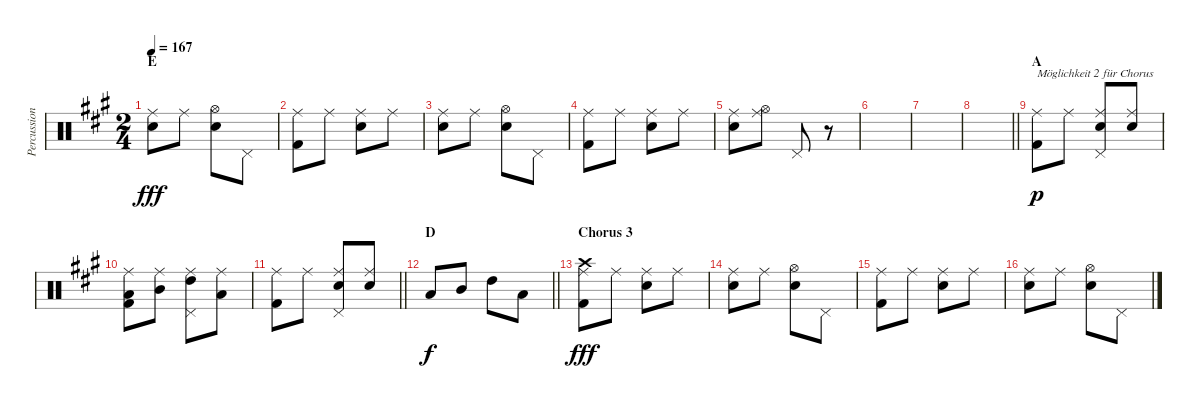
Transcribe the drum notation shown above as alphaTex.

\track ("Percussion" "Percussion") {instrument percussion}
\staff {score}
\articulation defaults
\ts (2 4)
\section ("" "E")
\tempo 167
\clef neutral
\ks a
("Ride (middle)" "Snare (hit) 2").8{dy fff} "Ride (middle)".8 ("Hi-Hat (open)" "Snare (hit) 2").8 "Pedal Hi-Hat (hit)".8 |
("Ride (middle)" "Kick (hit) 2").8 "Ride (middle)".8 ("Ride (middle)" "Snare (hit) 2").8 "Ride (middle)".8 |
("Ride (middle)" "Snare (hit) 2").8 "Ride (middle)".8 ("Hi-Hat (open)" "Snare (hit) 2").8 "Pedal Hi-Hat (hit)".8 |
("Ride (middle)" "Kick (hit) 2").8 "Ride (middle)".8 ("Ride (middle)" "Snare (hit) 2").8 "Ride (middle)".8 |
("Ride (middle)" "Snare (hit) 2").8 ("Ride (middle)" "Hi-Hat (open)").8 "Pedal Hi-Hat (hit)".8 r.8 |
|
|
\barLineRight lightlight
|
\section ("" "A")
("Ride (middle)" "Kick (hit) 2").8{txt "Möglichkeit 2 für Chorus" dy p} "Ride (middle)".8 ("Ride (middle)" "Pedal Hi-Hat (hit)" "Snare (hit) 2").8 ("Ride (middle)" "Snare (hit) 2").8 |
("Ride (middle)" "Low Tom (hit)" "Kick (hit) 2").8 ("Ride (middle)" "Mid Tom (hit)").8 ("Ride (middle)" "High Tom (hit)" "Pedal Hi-Hat (hit)").8 ("Ride (middle)" "Low Tom (hit)").8 |
\barLineRight lightlight
("Ride (middle)" "Kick (hit) 2").8 "Ride (middle)".8 ("Ride (middle)" "Pedal Hi-Hat (hit)" "Snare (hit) 2").8 ("Ride (middle)" "Snare (hit) 2").8 |
\section ("" "D")
\barLineRight lightlight "Low Tom (hit)".8{dy f} "Mid Tom (hit)".8 "High Tom (hit)".8 "Low Tom (hit)".8
|
\section ("" "Chorus 3")
("Ride (middle)" "Kick (hit) 2" "Crash high (hit)").8{dy fff} "Ride (middle)".8 ("Ride (middle)" "Snare (hit) 2").8 "Ride (middle)".8 |
("Ride (middle)" "Snare (hit) 2").8 "Ride (middle)".8 ("Hi-Hat (open)" "Snare (hit) 2").8 "Pedal Hi-Hat (hit)".8 |
("Ride (middle)" "Kick (hit) 2").8 "Ride (middle)".8 ("Ride (middle)" "Snare (hit) 2").8 "Ride (middle)".8 |
("Ride (middle)" "Snare (hit) 2").8 "Ride (middle)".8 ("Hi-Hat (open)" "Snare (hit) 2").8 "Pedal Hi-Hat (hit)".8
